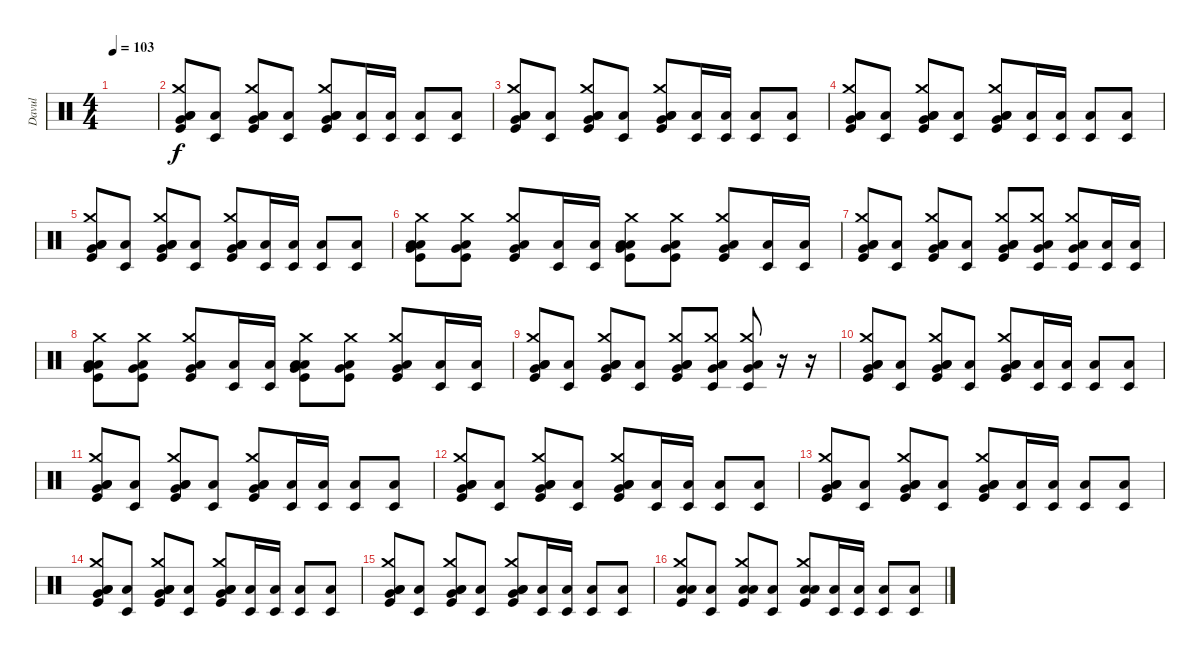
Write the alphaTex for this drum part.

\track ("Davul" "Davul") {instrument percussion}
\staff {score}
\articulation defaults
\ts (4 4)
\tempo 103
\clef neutral
\ks c
|
("Kick (hit)" "Low Tom (hit)" "Low Floor Tom (hit)" "Very Low Tom (hit)" "Crash medium (hit)").8 ("Timbale low (hit)" "Low Floor Tom (hit)").8 ("Kick (hit)" "Low Tom (hit)" "Low Floor Tom (hit)" "Very Low Tom (hit)" "Crash medium (hit)").8 ("Timbale low (hit)" "Low Floor Tom (hit)").8 ("Kick (hit)" "Low Tom (hit)" "Low Floor Tom (hit)" "Very Low Tom (hit)" "Crash medium (hit)").8 ("Timbale low (hit)" "Low Floor Tom (hit)").16 ("Timbale low (hit)" "Low Floor Tom (hit)").16 ("Timbale low (hit)" "Low Floor Tom (hit)").8 ("Timbale low (hit)" "Low Floor Tom (hit)").8 |
("Kick (hit)" "Low Tom (hit)" "Low Floor Tom (hit)" "Very Low Tom (hit)" "Crash medium (hit)").8 ("Timbale low (hit)" "Low Floor Tom (hit)").8 ("Kick (hit)" "Low Tom (hit)" "Low Floor Tom (hit)" "Very Low Tom (hit)" "Crash medium (hit)").8 ("Timbale low (hit)" "Low Floor Tom (hit)").8 ("Kick (hit)" "Low Tom (hit)" "Low Floor Tom (hit)" "Very Low Tom (hit)" "Crash medium (hit)").8 ("Timbale low (hit)" "Low Floor Tom (hit)").16 ("Timbale low (hit)" "Low Floor Tom (hit)").16 ("Timbale low (hit)" "Low Floor Tom (hit)").8 ("Timbale low (hit)" "Low Floor Tom (hit)").8 |
("Kick (hit)" "Low Tom (hit)" "Low Floor Tom (hit)" "Very Low Tom (hit)" "Crash medium (hit)").8 ("Timbale low (hit)" "Low Floor Tom (hit)").8 ("Kick (hit)" "Low Tom (hit)" "Low Floor Tom (hit)" "Very Low Tom (hit)" "Crash medium (hit)").8 ("Timbale low (hit)" "Low Floor Tom (hit)").8 ("Kick (hit)" "Low Tom (hit)" "Low Floor Tom (hit)" "Very Low Tom (hit)" "Crash medium (hit)").8 ("Timbale low (hit)" "Low Floor Tom (hit)").16 ("Timbale low (hit)" "Low Floor Tom (hit)").16 ("Timbale low (hit)" "Low Floor Tom (hit)").8 ("Timbale low (hit)" "Low Floor Tom (hit)").8 |
("Kick (hit)" "Low Tom (hit)" "Low Floor Tom (hit)" "Very Low Tom (hit)" "Crash medium (hit)").8 ("Timbale low (hit)" "Low Floor Tom (hit)").8 ("Kick (hit)" "Low Tom (hit)" "Low Floor Tom (hit)" "Very Low Tom (hit)" "Crash medium (hit)").8 ("Timbale low (hit)" "Low Floor Tom (hit)").8 ("Kick (hit)" "Low Tom (hit)" "Low Floor Tom (hit)" "Very Low Tom (hit)" "Crash medium (hit)").8 ("Timbale low (hit)" "Low Floor Tom (hit)").16 ("Timbale low (hit)" "Low Floor Tom (hit)").16 ("Timbale low (hit)" "Low Floor Tom (hit)").8 ("Timbale low (hit)" "Low Floor Tom (hit)").8 |
("Kick (hit)" "Low Tom (hit)" "Low Floor Tom (hit)" "Very Low Tom (hit)" "Crash medium (hit)").8 ("Kick (hit)" "Low Floor Tom (hit)" "Very Low Tom (hit)" "Crash medium (hit)").8 ("Kick (hit)" "Low Floor Tom (hit)" "Very Low Tom (hit)" "Crash medium (hit)").8 ("Timbale low (hit)" "Low Floor Tom (hit)").16 ("Timbale low (hit)" "Low Floor Tom (hit)").16 ("Kick (hit)" "Low Tom (hit)" "Low Floor Tom (hit)" "Very Low Tom (hit)" "Crash medium (hit)").8 ("Kick (hit)" "Very Low Tom (hit)" "Low Floor Tom (hit)" "Crash medium (hit)").8 ("Kick (hit)" "Very Low Tom (hit)" "Low Floor Tom (hit)" "Crash medium (hit)").8 ("Timbale low (hit)" "Low Floor Tom (hit)").16 ("Timbale low (hit)" "Low Floor Tom (hit)").16 |
("Kick (hit)" "Low Tom (hit)" "Low Floor Tom (hit)" "Very Low Tom (hit)" "Crash medium (hit)").8 ("Timbale low (hit)" "Low Floor Tom (hit)").8 ("Kick (hit)" "Low Tom (hit)" "Low Floor Tom (hit)" "Very Low Tom (hit)" "Crash medium (hit)").8 ("Timbale low (hit)" "Low Floor Tom (hit)").8 ("Kick (hit)" "Low Tom (hit)" "Low Floor Tom (hit)" "Very Low Tom (hit)" "Crash medium (hit)").8 ("Very Low Tom (hit)" "Timbale low (hit)" "Low Floor Tom (hit)" "Crash medium (hit)").8 ("Very Low Tom (hit)" "Timbale low (hit)" "Low Floor Tom (hit)" "Crash medium (hit)").8 ("Timbale low (hit)" "Low Floor Tom (hit)").16 ("Timbale low (hit)" "Low Floor Tom (hit)").16 |
("Kick (hit)" "Low Tom (hit)" "Low Floor Tom (hit)" "Very Low Tom (hit)" "Crash medium (hit)").8 ("Kick (hit)" "Low Floor Tom (hit)" "Very Low Tom (hit)" "Crash medium (hit)").8 ("Kick (hit)" "Low Floor Tom (hit)" "Very Low Tom (hit)" "Crash medium (hit)").8 ("Timbale low (hit)" "Low Floor Tom (hit)").16 ("Timbale low (hit)" "Low Floor Tom (hit)").16 ("Kick (hit)" "Low Tom (hit)" "Low Floor Tom (hit)" "Very Low Tom (hit)" "Crash medium (hit)").8 ("Kick (hit)" "Very Low Tom (hit)" "Low Floor Tom (hit)" "Crash medium (hit)").8 ("Kick (hit)" "Very Low Tom (hit)" "Low Floor Tom (hit)" "Crash medium (hit)").8 ("Timbale low (hit)" "Low Floor Tom (hit)").16 ("Timbale low (hit)" "Low Floor Tom (hit)").16 |
("Kick (hit)" "Low Tom (hit)" "Low Floor Tom (hit)" "Very Low Tom (hit)" "Crash medium (hit)").8 ("Timbale low (hit)" "Low Floor Tom (hit)").8 ("Kick (hit)" "Low Tom (hit)" "Low Floor Tom (hit)" "Very Low Tom (hit)" "Crash medium (hit)").8 ("Timbale low (hit)" "Low Floor Tom (hit)").8 ("Kick (hit)" "Low Tom (hit)" "Low Floor Tom (hit)" "Very Low Tom (hit)" "Crash medium (hit)").8 ("Very Low Tom (hit)" "Timbale low (hit)" "Low Floor Tom (hit)" "Crash medium (hit)").8 ("Very Low Tom (hit)" "Timbale low (hit)" "Low Floor Tom (hit)" "Crash medium (hit)").8 r.16 r.16 |
("Kick (hit)" "Low Tom (hit)" "Low Floor Tom (hit)" "Very Low Tom (hit)" "Crash medium (hit)").8 ("Timbale low (hit)" "Low Floor Tom (hit)").8 ("Kick (hit)" "Low Tom (hit)" "Low Floor Tom (hit)" "Very Low Tom (hit)" "Crash medium (hit)").8 ("Timbale low (hit)" "Low Floor Tom (hit)").8 ("Kick (hit)" "Low Tom (hit)" "Low Floor Tom (hit)" "Very Low Tom (hit)" "Crash medium (hit)").8 ("Timbale low (hit)" "Low Floor Tom (hit)").16 ("Timbale low (hit)" "Low Floor Tom (hit)").16 ("Timbale low (hit)" "Low Floor Tom (hit)").8 ("Timbale low (hit)" "Low Floor Tom (hit)").8 |
("Kick (hit)" "Low Tom (hit)" "Low Floor Tom (hit)" "Very Low Tom (hit)" "Crash medium (hit)").8 ("Timbale low (hit)" "Low Floor Tom (hit)").8 ("Kick (hit)" "Low Tom (hit)" "Low Floor Tom (hit)" "Very Low Tom (hit)" "Crash medium (hit)").8 ("Timbale low (hit)" "Low Floor Tom (hit)").8 ("Kick (hit)" "Low Tom (hit)" "Low Floor Tom (hit)" "Very Low Tom (hit)" "Crash medium (hit)").8 ("Timbale low (hit)" "Low Floor Tom (hit)").16 ("Timbale low (hit)" "Low Floor Tom (hit)").16 ("Timbale low (hit)" "Low Floor Tom (hit)").8 ("Timbale low (hit)" "Low Floor Tom (hit)").8 |
("Kick (hit)" "Low Tom (hit)" "Low Floor Tom (hit)" "Very Low Tom (hit)" "Crash medium (hit)").8 ("Timbale low (hit)" "Low Floor Tom (hit)").8 ("Kick (hit)" "Low Tom (hit)" "Low Floor Tom (hit)" "Very Low Tom (hit)" "Crash medium (hit)").8 ("Timbale low (hit)" "Low Floor Tom (hit)").8 ("Kick (hit)" "Low Tom (hit)" "Low Floor Tom (hit)" "Very Low Tom (hit)" "Crash medium (hit)").8 ("Timbale low (hit)" "Low Floor Tom (hit)").16 ("Timbale low (hit)" "Low Floor Tom (hit)").16 ("Timbale low (hit)" "Low Floor Tom (hit)").8 ("Timbale low (hit)" "Low Floor Tom (hit)").8 |
("Kick (hit)" "Low Tom (hit)" "Low Floor Tom (hit)" "Very Low Tom (hit)" "Crash medium (hit)").8 ("Timbale low (hit)" "Low Floor Tom (hit)").8 ("Kick (hit)" "Low Tom (hit)" "Low Floor Tom (hit)" "Very Low Tom (hit)" "Crash medium (hit)").8 ("Timbale low (hit)" "Low Floor Tom (hit)").8 ("Kick (hit)" "Low Tom (hit)" "Low Floor Tom (hit)" "Very Low Tom (hit)" "Crash medium (hit)").8 ("Timbale low (hit)" "Low Floor Tom (hit)").16 ("Timbale low (hit)" "Low Floor Tom (hit)").16 ("Timbale low (hit)" "Low Floor Tom (hit)").8 ("Timbale low (hit)" "Low Floor Tom (hit)").8 |
("Kick (hit)" "Low Tom (hit)" "Low Floor Tom (hit)" "Very Low Tom (hit)" "Crash medium (hit)").8 ("Timbale low (hit)" "Low Floor Tom (hit)").8 ("Kick (hit)" "Low Tom (hit)" "Low Floor Tom (hit)" "Very Low Tom (hit)" "Crash medium (hit)").8 ("Timbale low (hit)" "Low Floor Tom (hit)").8 ("Kick (hit)" "Low Tom (hit)" "Low Floor Tom (hit)" "Very Low Tom (hit)" "Crash medium (hit)").8 ("Timbale low (hit)" "Low Floor Tom (hit)").16 ("Timbale low (hit)" "Low Floor Tom (hit)").16 ("Timbale low (hit)" "Low Floor Tom (hit)").8 ("Timbale low (hit)" "Low Floor Tom (hit)").8 |
("Kick (hit)" "Low Tom (hit)" "Low Floor Tom (hit)" "Very Low Tom (hit)" "Crash medium (hit)").8 ("Timbale low (hit)" "Low Floor Tom (hit)").8 ("Kick (hit)" "Low Tom (hit)" "Low Floor Tom (hit)" "Very Low Tom (hit)" "Crash medium (hit)").8 ("Timbale low (hit)" "Low Floor Tom (hit)").8 ("Kick (hit)" "Low Tom (hit)" "Low Floor Tom (hit)" "Very Low Tom (hit)" "Crash medium (hit)").8 ("Timbale low (hit)" "Low Floor Tom (hit)").16 ("Timbale low (hit)" "Low Floor Tom (hit)").16 ("Timbale low (hit)" "Low Floor Tom (hit)").8 ("Timbale low (hit)" "Low Floor Tom (hit)").8 |
("Kick (hit)" "Low Tom (hit)" "Low Floor Tom (hit)" "Crash medium (hit)").8 ("Timbale low (hit)" "Low Floor Tom (hit)").8 ("Kick (hit)" "Low Tom (hit)" "Low Floor Tom (hit)" "Crash medium (hit)").8 ("Timbale low (hit)" "Low Floor Tom (hit)").8 ("Kick (hit)" "Low Tom (hit)" "Low Floor Tom (hit)" "Crash medium (hit)").8 ("Timbale low (hit)" "Low Floor Tom (hit)").16 ("Timbale low (hit)" "Low Floor Tom (hit)").16 ("Timbale low (hit)" "Low Floor Tom (hit)").8 ("Timbale low (hit)" "Low Floor Tom (hit)").8
